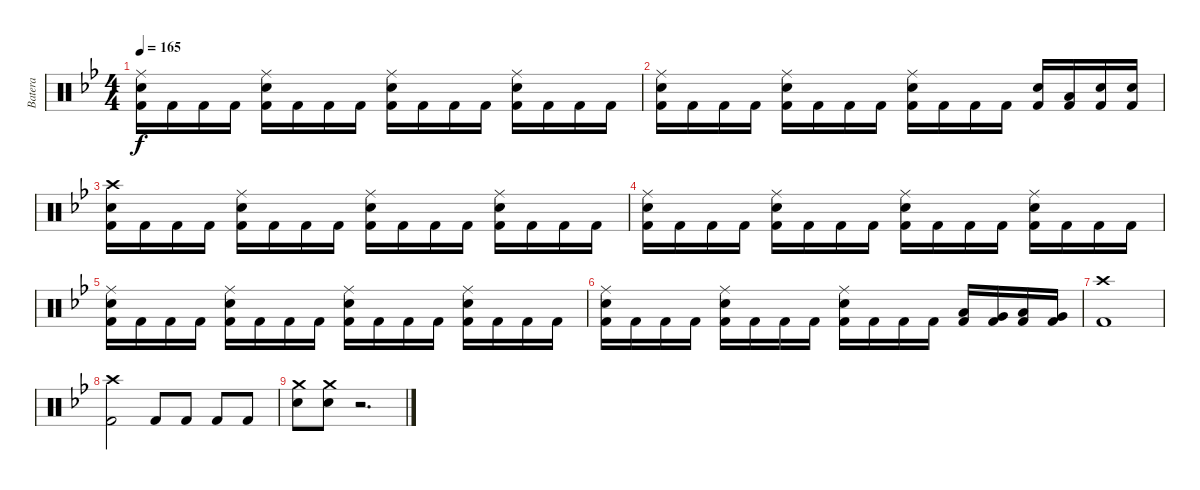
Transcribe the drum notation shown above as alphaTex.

\track ("Batera" "Batera") {instrument percussion}
\staff {score}
\articulation defaults
\ts (4 4)
\tempo 165
\clef neutral
\ks bb
("Ride (middle)" "Electric Snare (hit)" "Kick (hit) 2").16{dy f} "Kick (hit) 2".16 "Kick (hit) 2".16 "Kick (hit) 2".16 ("Ride (middle)" "Electric Snare (hit)" "Kick (hit) 2").16 "Kick (hit) 2".16 "Kick (hit) 2".16 "Kick (hit) 2".16 ("Ride (middle)" "Electric Snare (hit)" "Kick (hit) 2").16 "Kick (hit) 2".16 "Kick (hit) 2".16 "Kick (hit) 2".16 ("Ride (middle)" "Electric Snare (hit)" "Kick (hit) 2").16 "Kick (hit) 2".16 "Kick (hit) 2".16 "Kick (hit) 2".16 |
("Ride (middle)" "Electric Snare (hit)" "Kick (hit) 2").16 "Kick (hit) 2".16 "Kick (hit) 2".16 "Kick (hit) 2".16 ("Ride (middle)" "Electric Snare (hit)" "Kick (hit) 2").16 "Kick (hit) 2".16 "Kick (hit) 2".16 "Kick (hit) 2".16 ("Ride (middle)" "Electric Snare (hit)" "Kick (hit) 2").16 "Kick (hit) 2".16 "Kick (hit) 2".16 "Kick (hit) 2".16 ("Electric Snare (hit)" "Kick (hit) 2").16 ("Low Floor Tom (hit)" "Kick (hit) 2").16 ("Electric Snare (hit)" "Kick (hit) 2").16 ("Electric Snare (hit)" "Kick (hit) 2").16 |
("Crash high (hit)" "Electric Snare (hit)" "Kick (hit) 2").16 "Kick (hit) 2".16 "Kick (hit) 2".16 "Kick (hit) 2".16 ("Ride (middle)" "Electric Snare (hit)" "Kick (hit) 2").16 "Kick (hit) 2".16 "Kick (hit) 2".16 "Kick (hit) 2".16 ("Ride (middle)" "Electric Snare (hit)" "Kick (hit) 2").16 "Kick (hit) 2".16 "Kick (hit) 2".16 "Kick (hit) 2".16 ("Ride (middle)" "Electric Snare (hit)" "Kick (hit) 2").16 "Kick (hit) 2".16 "Kick (hit) 2".16 "Kick (hit) 2".16 |
("Ride (middle)" "Electric Snare (hit)" "Kick (hit) 2").16 "Kick (hit) 2".16 "Kick (hit) 2".16 "Kick (hit) 2".16 ("Ride (middle)" "Electric Snare (hit)" "Kick (hit) 2").16 "Kick (hit) 2".16 "Kick (hit) 2".16 "Kick (hit) 2".16 ("Ride (middle)" "Electric Snare (hit)" "Kick (hit) 2").16 "Kick (hit) 2".16 "Kick (hit) 2".16 "Kick (hit) 2".16 ("Ride (middle)" "Electric Snare (hit)" "Kick (hit) 2").16 "Kick (hit) 2".16 "Kick (hit) 2".16 "Kick (hit) 2".16 |
("Ride (middle)" "Electric Snare (hit)" "Kick (hit) 2").16 "Kick (hit) 2".16 "Kick (hit) 2".16 "Kick (hit) 2".16 ("Ride (middle)" "Electric Snare (hit)" "Kick (hit) 2").16 "Kick (hit) 2".16 "Kick (hit) 2".16 "Kick (hit) 2".16 ("Ride (middle)" "Electric Snare (hit)" "Kick (hit) 2").16 "Kick (hit) 2".16 "Kick (hit) 2".16 "Kick (hit) 2".16 ("Ride (middle)" "Electric Snare (hit)" "Kick (hit) 2").16 "Kick (hit) 2".16 "Kick (hit) 2".16 "Kick (hit) 2".16 |
("Ride (middle)" "Electric Snare (hit)" "Kick (hit) 2").16 "Kick (hit) 2".16 "Kick (hit) 2".16 "Kick (hit) 2".16 ("Ride (middle)" "Electric Snare (hit)" "Kick (hit) 2").16 "Kick (hit) 2".16 "Kick (hit) 2".16 "Kick (hit) 2".16 ("Ride (middle)" "Electric Snare (hit)" "Kick (hit) 2").16 "Kick (hit) 2".16 "Kick (hit) 2".16 "Kick (hit) 2".16 ("Low Floor Tom (hit)" "Kick (hit) 2").16 ("Very Low Tom (hit)" "Kick (hit) 2").16 ("Low Tom (hit)" "Kick (hit) 2").16 ("Very Low Tom (hit)" "Kick (hit) 2").16 |
("Crash high (hit)" "Kick (hit) 2").1 |
("Crash high (hit)" "Kick (hit) 2").2 "Kick (hit) 2".8 "Kick (hit) 2".8 "Kick (hit) 2".8 "Kick (hit) 2".8 |
("Crash medium (hit)" "Electric Snare (hit)").8 ("Crash medium (hit)" "Electric Snare (hit)").8 r.2{d}
